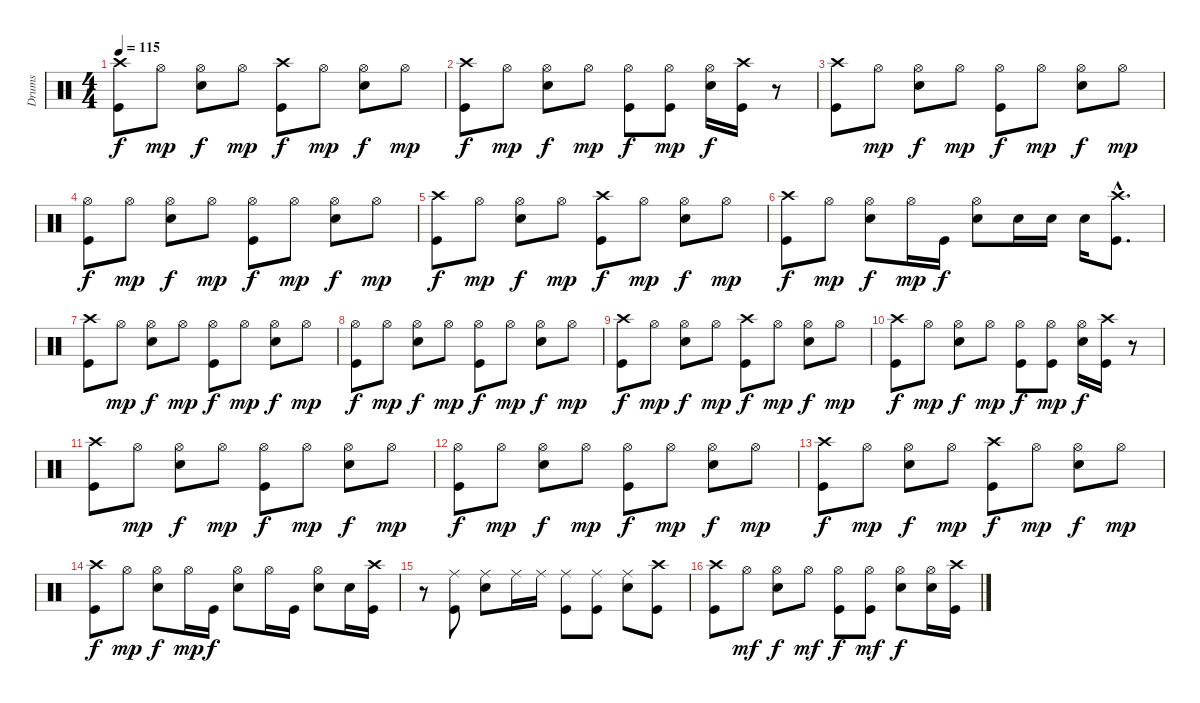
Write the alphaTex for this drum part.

\track ("Drums" "Drums") {instrument percussion}
\staff {score}
\articulation defaults
\ts (4 4)
\tempo 115
\clef neutral
\ks c
("Crash high (hit)" "Kick (hit)").8{dy f} "Hi-Hat (open)".8{dy mp} ("Hi-Hat (open)" "Snare (hit) 2").8{dy f} "Hi-Hat (open)".8{dy mp} ("Crash high (hit)" "Kick (hit)").8{dy f} "Hi-Hat (open)".8{dy mp} ("Hi-Hat (open)" "Snare (hit) 2").8{dy f} "Hi-Hat (open)".8{dy mp} |
("Crash high (hit)" "Kick (hit)").8{dy f} "Hi-Hat (open)".8{dy mp} ("Hi-Hat (open)" "Snare (hit) 2").8{dy f} "Hi-Hat (open)".8{dy mp} ("Hi-Hat (open)" "Kick (hit)").8{dy f} ("Hi-Hat (open)" "Kick (hit)").8{dy mp} ("Hi-Hat (open)" "Snare (hit) 2").16{dy f} ("Crash high (hit)" "Kick (hit)").16 r.8 |
("Crash high (hit)" "Kick (hit)").8 "Hi-Hat (open)".8{dy mp} ("Hi-Hat (open)" "Snare (hit) 2").8{dy f} "Hi-Hat (open)".8{dy mp} ("Hi-Hat (open)" "Kick (hit)").8{dy f} "Hi-Hat (open)".8{dy mp} ("Hi-Hat (open)" "Snare (hit) 2").8{dy f} "Hi-Hat (open)".8{dy mp} |
("Hi-Hat (open)" "Kick (hit)").8{dy f} "Hi-Hat (open)".8{dy mp} ("Hi-Hat (open)" "Snare (hit) 2").8{dy f} "Hi-Hat (open)".8{dy mp} ("Hi-Hat (open)" "Kick (hit)").8{dy f} "Hi-Hat (open)".8{dy mp} ("Hi-Hat (open)" "Snare (hit) 2").8{dy f} "Hi-Hat (open)".8{dy mp} |
("Crash high (hit)" "Kick (hit)").8{dy f} "Hi-Hat (open)".8{dy mp} ("Hi-Hat (open)" "Snare (hit) 2").8{dy f} "Hi-Hat (open)".8{dy mp} ("Crash high (hit)" "Kick (hit)").8{dy f} "Hi-Hat (open)".8{dy mp} ("Hi-Hat (open)" "Snare (hit) 2").8{dy f} "Hi-Hat (open)".8{dy mp} |
("Crash high (hit)" "Kick (hit)").8{dy f} "Hi-Hat (open)".8{dy mp} ("Hi-Hat (open)" "Snare (hit) 2").8{dy f} "Hi-Hat (open)".16{dy mp} "Kick (hit)".16{dy f} ("Hi-Hat (open)" "Snare (hit) 2").8 "Snare (hit) 2".16 "Snare (hit) 2".16 "Snare (hit) 2".16 ("Crash high (hit)"{hac} "Kick (hit)"{hac}).8{d} |
("Crash high (hit)" "Kick (hit)").8 "Hi-Hat (open)".8{dy mp} ("Hi-Hat (open)" "Snare (hit) 2").8{dy f} "Hi-Hat (open)".8{dy mp} ("Hi-Hat (open)" "Kick (hit)").8{dy f} "Hi-Hat (open)".8{dy mp} ("Hi-Hat (open)" "Snare (hit) 2").8{dy f} "Hi-Hat (open)".8{dy mp} |
("Hi-Hat (open)" "Kick (hit)").8{dy f} "Hi-Hat (open)".8{dy mp} ("Hi-Hat (open)" "Snare (hit) 2").8{dy f} "Hi-Hat (open)".8{dy mp} ("Hi-Hat (open)" "Kick (hit)").8{dy f} "Hi-Hat (open)".8{dy mp} ("Hi-Hat (open)" "Snare (hit) 2").8{dy f} "Hi-Hat (open)".8{dy mp} |
("Crash high (hit)" "Kick (hit)").8{dy f} "Hi-Hat (open)".8{dy mp} ("Hi-Hat (open)" "Snare (hit) 2").8{dy f} "Hi-Hat (open)".8{dy mp} ("Crash high (hit)" "Kick (hit)").8{dy f} "Hi-Hat (open)".8{dy mp} ("Hi-Hat (open)" "Snare (hit) 2").8{dy f} "Hi-Hat (open)".8{dy mp} |
("Crash high (hit)" "Kick (hit)").8{dy f} "Hi-Hat (open)".8{dy mp} ("Hi-Hat (open)" "Snare (hit) 2").8{dy f} "Hi-Hat (open)".8{dy mp} ("Hi-Hat (open)" "Kick (hit)").8{dy f} ("Hi-Hat (open)" "Kick (hit)").8{dy mp} ("Hi-Hat (open)" "Snare (hit) 2").16{dy f} ("Crash high (hit)" "Kick (hit)").16 r.8 |
("Crash high (hit)" "Kick (hit)").8 "Hi-Hat (open)".8{dy mp} ("Hi-Hat (open)" "Snare (hit) 2").8{dy f} "Hi-Hat (open)".8{dy mp} ("Hi-Hat (open)" "Kick (hit)").8{dy f} "Hi-Hat (open)".8{dy mp} ("Hi-Hat (open)" "Snare (hit) 2").8{dy f} "Hi-Hat (open)".8{dy mp} |
("Hi-Hat (open)" "Kick (hit)").8{dy f} "Hi-Hat (open)".8{dy mp} ("Hi-Hat (open)" "Snare (hit) 2").8{dy f} "Hi-Hat (open)".8{dy mp} ("Hi-Hat (open)" "Kick (hit)").8{dy f} "Hi-Hat (open)".8{dy mp} ("Hi-Hat (open)" "Snare (hit) 2").8{dy f} "Hi-Hat (open)".8{dy mp} |
("Crash high (hit)" "Kick (hit)").8{dy f} "Hi-Hat (open)".8{dy mp} ("Hi-Hat (open)" "Snare (hit) 2").8{dy f} "Hi-Hat (open)".8{dy mp} ("Crash high (hit)" "Kick (hit)").8{dy f} "Hi-Hat (open)".8{dy mp} ("Hi-Hat (open)" "Snare (hit) 2").8{dy f} "Hi-Hat (open)".8{dy mp} |
("Crash high (hit)" "Kick (hit)").8{dy f} "Hi-Hat (open)".8{dy mp} ("Hi-Hat (open)" "Snare (hit) 2").8{dy f} "Hi-Hat (open)".16{dy mp} "Kick (hit)".16{dy f} ("Hi-Hat (open)" "Snare (hit) 2").8 "Hi-Hat (open)".16 "Kick (hit)".16 ("Hi-Hat (open)" "Snare (hit) 2").8 "Snare (hit) 2".16 ("Crash high (hit)" "Kick (hit)").16 |
r.8 ("Ride (middle)" "Kick (hit)").8 ("Ride (middle)" "Snare (hit) 2").8 "Ride (middle)".16 "Ride (middle)".16 ("Ride (middle)" "Kick (hit)").8 ("Ride (middle)" "Kick (hit)").8 ("Ride (middle)" "Snare (hit) 2").8 ("Crash high (hit)" "Kick (hit)").8 |
("Crash high (hit)" "Kick (hit)").8 "Hi-Hat (open)".8{dy mf} ("Hi-Hat (open)" "Snare (hit) 2").8{dy f} "Hi-Hat (open)".8{dy mf} ("Hi-Hat (open)" "Kick (hit)").8{dy f} ("Hi-Hat (open)" "Kick (hit)").8{dy mf} ("Hi-Hat (open)" "Snare (hit) 2").8{dy f} ("Hi-Hat (open)" "Snare (hit) 2").16 ("Crash high (hit)" "Kick (hit)").16
